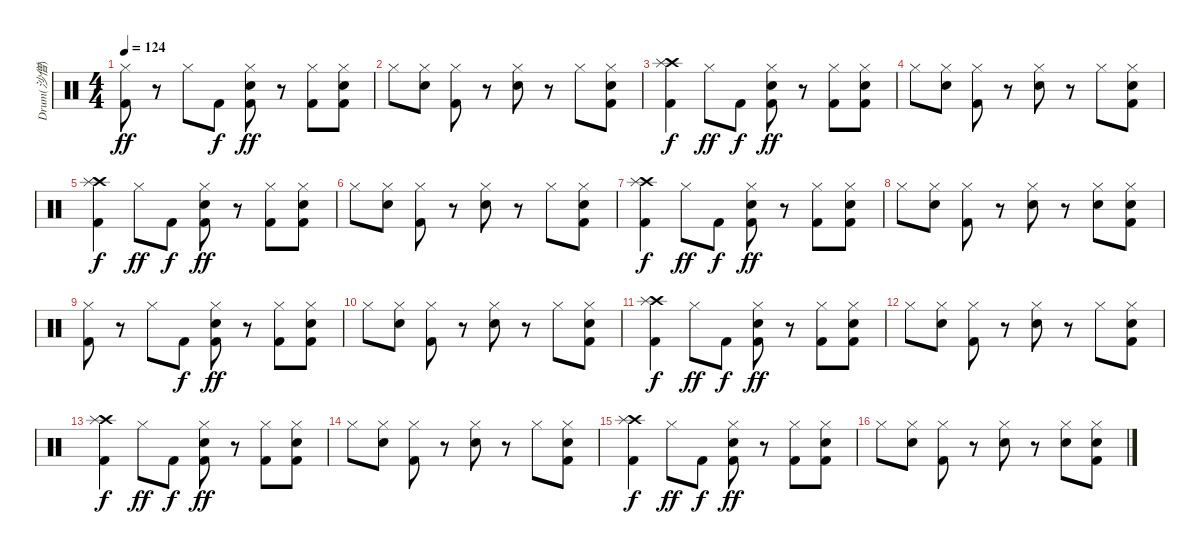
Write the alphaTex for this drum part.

\track ("Drum(沙僧)" "Drum(沙僧)") {instrument percussion}
\staff {score}
\articulation defaults
\ts (4 4)
\tempo 124
\clef neutral
\ks c
("Hi-Hat (closed)" "Kick (hit) 2").8{dy ff} r.8 "Hi-Hat (closed)".8 "Kick (hit) 2".8{dy f} ("Hi-Hat (closed)" "Electric Snare (hit)" "Kick (hit) 2").8{dy ff} r.8 ("Hi-Hat (closed)" "Kick (hit) 2").8 ("Hi-Hat (closed)" "Electric Snare (hit)" "Kick (hit) 2").8 |
"Hi-Hat (closed)".8 ("Hi-Hat (closed)" "Electric Snare (hit)").8 ("Hi-Hat (closed)" "Kick (hit) 2").8 r.8 ("Hi-Hat (closed)" "Electric Snare (hit)").8 r.8 "Hi-Hat (closed)".8 ("Hi-Hat (closed)" "Electric Snare (hit)" "Kick (hit) 2").8 |
("Crash high (hit)" "Splash (hit)" "Kick (hit) 2").4{dy f} "Hi-Hat (closed)".8{dy ff} "Kick (hit) 2".8{dy f} ("Hi-Hat (closed)" "Electric Snare (hit)" "Kick (hit) 2").8{dy ff} r.8 ("Hi-Hat (closed)" "Kick (hit) 2").8 ("Hi-Hat (closed)" "Electric Snare (hit)" "Kick (hit) 2").8 |
"Hi-Hat (closed)".8 ("Hi-Hat (closed)" "Electric Snare (hit)").8 ("Hi-Hat (closed)" "Kick (hit) 2").8 r.8 ("Hi-Hat (closed)" "Electric Snare (hit)").8 r.8 "Hi-Hat (closed)".8 ("Hi-Hat (closed)" "Electric Snare (hit)" "Kick (hit) 2").8 |
("Crash high (hit)" "Splash (hit)" "Kick (hit) 2").4{dy f} "Hi-Hat (closed)".8{dy ff} "Kick (hit) 2".8{dy f} ("Hi-Hat (closed)" "Electric Snare (hit)" "Kick (hit) 2").8{dy ff} r.8 ("Hi-Hat (closed)" "Kick (hit) 2").8 ("Hi-Hat (closed)" "Electric Snare (hit)" "Kick (hit) 2").8 |
"Hi-Hat (closed)".8 ("Hi-Hat (closed)" "Electric Snare (hit)").8 ("Hi-Hat (closed)" "Kick (hit) 2").8 r.8 ("Hi-Hat (closed)" "Electric Snare (hit)").8 r.8 "Hi-Hat (closed)".8 ("Hi-Hat (closed)" "Electric Snare (hit)" "Kick (hit) 2").8 |
("Crash high (hit)" "Splash (hit)" "Kick (hit) 2").4{dy f} "Hi-Hat (closed)".8{dy ff} "Kick (hit) 2".8{dy f} ("Hi-Hat (closed)" "Electric Snare (hit)" "Kick (hit) 2").8{dy ff} r.8 ("Hi-Hat (closed)" "Kick (hit) 2").8 ("Hi-Hat (closed)" "Electric Snare (hit)" "Kick (hit) 2").8 |
"Hi-Hat (closed)".8 ("Hi-Hat (closed)" "Electric Snare (hit)").8 ("Hi-Hat (closed)" "Kick (hit) 2").8 r.8 ("Hi-Hat (closed)" "Electric Snare (hit)").8 r.8 ("Hi-Hat (closed)" "Electric Snare (hit)").8 ("Hi-Hat (closed)" "Electric Snare (hit)" "Kick (hit) 2").8 |
("Hi-Hat (closed)" "Kick (hit) 2").8 r.8 "Hi-Hat (closed)".8 "Kick (hit) 2".8{dy f} ("Hi-Hat (closed)" "Electric Snare (hit)" "Kick (hit) 2").8{dy ff} r.8 ("Hi-Hat (closed)" "Kick (hit) 2").8 ("Hi-Hat (closed)" "Electric Snare (hit)" "Kick (hit) 2").8 |
"Hi-Hat (closed)".8 ("Hi-Hat (closed)" "Electric Snare (hit)").8 ("Hi-Hat (closed)" "Kick (hit) 2").8 r.8 ("Hi-Hat (closed)" "Electric Snare (hit)").8 r.8 "Hi-Hat (closed)".8 ("Hi-Hat (closed)" "Electric Snare (hit)" "Kick (hit) 2").8 |
("Crash high (hit)" "Splash (hit)" "Kick (hit) 2").4{dy f} "Hi-Hat (closed)".8{dy ff} "Kick (hit) 2".8{dy f} ("Hi-Hat (closed)" "Electric Snare (hit)" "Kick (hit) 2").8{dy ff} r.8 ("Hi-Hat (closed)" "Kick (hit) 2").8 ("Hi-Hat (closed)" "Electric Snare (hit)" "Kick (hit) 2").8 |
"Hi-Hat (closed)".8 ("Hi-Hat (closed)" "Electric Snare (hit)").8 ("Hi-Hat (closed)" "Kick (hit) 2").8 r.8 ("Hi-Hat (closed)" "Electric Snare (hit)").8 r.8 "Hi-Hat (closed)".8 ("Hi-Hat (closed)" "Electric Snare (hit)" "Kick (hit) 2").8 |
("Crash high (hit)" "Splash (hit)" "Kick (hit) 2").4{dy f} "Hi-Hat (closed)".8{dy ff} "Kick (hit) 2".8{dy f} ("Hi-Hat (closed)" "Electric Snare (hit)" "Kick (hit) 2").8{dy ff} r.8 ("Hi-Hat (closed)" "Kick (hit) 2").8 ("Hi-Hat (closed)" "Electric Snare (hit)" "Kick (hit) 2").8 |
"Hi-Hat (closed)".8 ("Hi-Hat (closed)" "Electric Snare (hit)").8 ("Hi-Hat (closed)" "Kick (hit) 2").8 r.8 ("Hi-Hat (closed)" "Electric Snare (hit)").8 r.8 "Hi-Hat (closed)".8 ("Hi-Hat (closed)" "Electric Snare (hit)" "Kick (hit) 2").8 |
("Crash high (hit)" "Splash (hit)" "Kick (hit) 2").4{dy f} "Hi-Hat (closed)".8{dy ff} "Kick (hit) 2".8{dy f} ("Hi-Hat (closed)" "Electric Snare (hit)" "Kick (hit) 2").8{dy ff} r.8 ("Hi-Hat (closed)" "Kick (hit) 2").8 ("Hi-Hat (closed)" "Electric Snare (hit)" "Kick (hit) 2").8 |
"Hi-Hat (closed)".8 ("Hi-Hat (closed)" "Electric Snare (hit)").8 ("Hi-Hat (closed)" "Kick (hit) 2").8 r.8 ("Hi-Hat (closed)" "Electric Snare (hit)").8 r.8 ("Hi-Hat (closed)" "Electric Snare (hit)").8 ("Hi-Hat (closed)" "Electric Snare (hit)" "Kick (hit) 2").8
